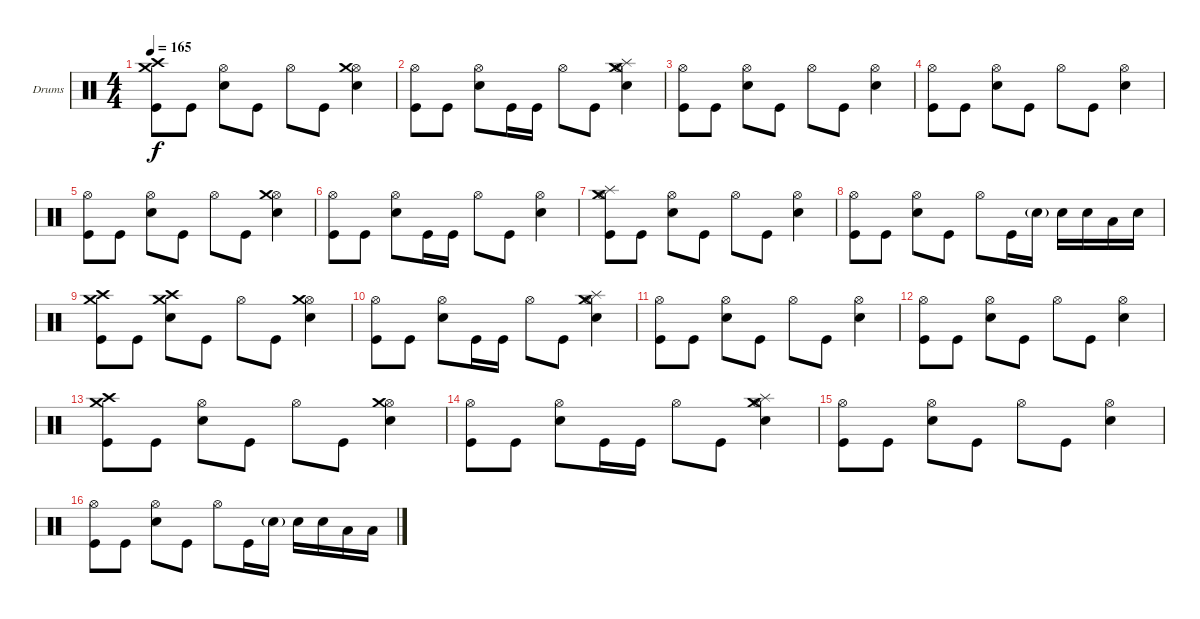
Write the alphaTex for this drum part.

\defaultSystemsLayout 4
\bracketExtendMode groupsimilarinstruments
\firstSystemTrackNameOrientation horizontal
\otherSystemsTrackNameOrientation horizontal
\track ("Drumkit" "Drums") {instrument percussion}
\staff {score}
\articulation defaults
\ts (4 4)
\tempo 165
\clef neutral
\ks c
("Kick (hit)" "Crash high (hit)" "Crash medium (hit)").8{dy f} "Kick (hit)".8 ("Hi-Hat (open)" "Snare (hit) 2").8 "Kick (hit)".8 "Hi-Hat (open)".8 "Kick (hit)".8 ("Snare (hit) 2" "Hi-Hat (open)" "Crash medium (hit)").4 |
("Kick (hit)" "Hi-Hat (open)").8 "Kick (hit)".8 ("Hi-Hat (open)" "Snare (hit) 2").8 "Kick (hit)".16 "Kick (hit)".16 "Hi-Hat (open)".8 "Kick (hit)".8 ("Snare (hit) 2" "Hi-Hat (open)" "Crash medium (hit)" "Splash (hit)").4 |
("Kick (hit)" "Hi-Hat (open)").8 "Kick (hit)".8 ("Hi-Hat (open)" "Snare (hit) 2").8 "Kick (hit)".8 "Hi-Hat (open)".8 "Kick (hit)".8 ("Snare (hit) 2" "Hi-Hat (open)").4 |
("Kick (hit)" "Hi-Hat (open)").8 "Kick (hit)".8 ("Hi-Hat (open)" "Snare (hit) 2").8 "Kick (hit)".8 "Hi-Hat (open)".8 "Kick (hit)".8 ("Snare (hit) 2" "Hi-Hat (open)").4 |
("Kick (hit)" "Hi-Hat (open)").8 "Kick (hit)".8 ("Hi-Hat (open)" "Snare (hit) 2").8 "Kick (hit)".8 "Hi-Hat (open)".8 "Kick (hit)".8 ("Snare (hit) 2" "Hi-Hat (open)" "Crash medium (hit)").4 |
("Kick (hit)" "Hi-Hat (open)").8 "Kick (hit)".8 ("Hi-Hat (open)" "Snare (hit) 2").8 "Kick (hit)".16 "Kick (hit)".16 "Hi-Hat (open)".8 "Kick (hit)".8 ("Snare (hit) 2" "Hi-Hat (open)").4 |
("Kick (hit)" "Hi-Hat (open)" "Splash (hit)" "Crash medium (hit)").8 "Kick (hit)".8 ("Hi-Hat (open)" "Snare (hit) 2").8 "Kick (hit)".8 "Hi-Hat (open)".8 "Kick (hit)".8 ("Snare (hit) 2" "Hi-Hat (open)").4 |
("Kick (hit)" "Hi-Hat (open)").8 "Kick (hit)".8 ("Hi-Hat (open)" "Snare (hit) 2").8 "Kick (hit)".8 "Hi-Hat (open)".8 "Kick (hit)".16 "Snare (hit) 2"{g}.16 "Snare (hit) 2".16 "Snare (hit) 2".16 "Low Tom (hit)".16 "Snare (hit) 2".16 |
("Kick (hit)" "Crash high (hit)" "Crash medium (hit)").8 "Kick (hit)".8 ("Snare (hit) 2" "Crash high (hit)" "Crash medium (hit)").8 "Kick (hit)".8 "Hi-Hat (open)".8 "Kick (hit)".8 ("Snare (hit) 2" "Hi-Hat (open)" "Crash medium (hit)").4 |
("Kick (hit)" "Hi-Hat (open)").8 "Kick (hit)".8 ("Hi-Hat (open)" "Snare (hit) 2").8 "Kick (hit)".16 "Kick (hit)".16 "Hi-Hat (open)".8 "Kick (hit)".8 ("Snare (hit) 2" "Hi-Hat (open)" "Crash medium (hit)" "Splash (hit)").4 |
("Kick (hit)" "Hi-Hat (open)").8 "Kick (hit)".8 ("Hi-Hat (open)" "Snare (hit) 2").8 "Kick (hit)".8 "Hi-Hat (open)".8 "Kick (hit)".8 ("Snare (hit) 2" "Hi-Hat (open)").4 |
("Kick (hit)" "Hi-Hat (open)").8 "Kick (hit)".8 ("Hi-Hat (open)" "Snare (hit) 2").8 "Kick (hit)".8 "Hi-Hat (open)".8 "Kick (hit)".8 ("Snare (hit) 2" "Hi-Hat (open)").4 |
("Kick (hit)" "Crash high (hit)" "Crash medium (hit)").8 "Kick (hit)".8 ("Hi-Hat (open)" "Snare (hit) 2").8 "Kick (hit)".8 "Hi-Hat (open)".8 "Kick (hit)".8 ("Snare (hit) 2" "Hi-Hat (open)" "Crash medium (hit)").4 |
("Kick (hit)" "Hi-Hat (open)").8 "Kick (hit)".8 ("Hi-Hat (open)" "Snare (hit) 2").8 "Kick (hit)".16 "Kick (hit)".16 "Hi-Hat (open)".8 "Kick (hit)".8 ("Snare (hit) 2" "Hi-Hat (open)" "Crash medium (hit)" "Splash (hit)").4 |
("Kick (hit)" "Hi-Hat (open)").8 "Kick (hit)".8 ("Hi-Hat (open)" "Snare (hit) 2").8 "Kick (hit)".8 "Hi-Hat (open)".8 "Kick (hit)".8 ("Snare (hit) 2" "Hi-Hat (open)").4 |
("Kick (hit)" "Hi-Hat (open)").8 "Kick (hit)".8 ("Hi-Hat (open)" "Snare (hit) 2").8 "Kick (hit)".8 "Hi-Hat (open)".8 "Kick (hit)".16 "Snare (hit) 2"{g}.16 "Snare (hit) 2".16 "Snare (hit) 2".16 "Low Tom (hit)".16 "Low Tom (hit)".16
